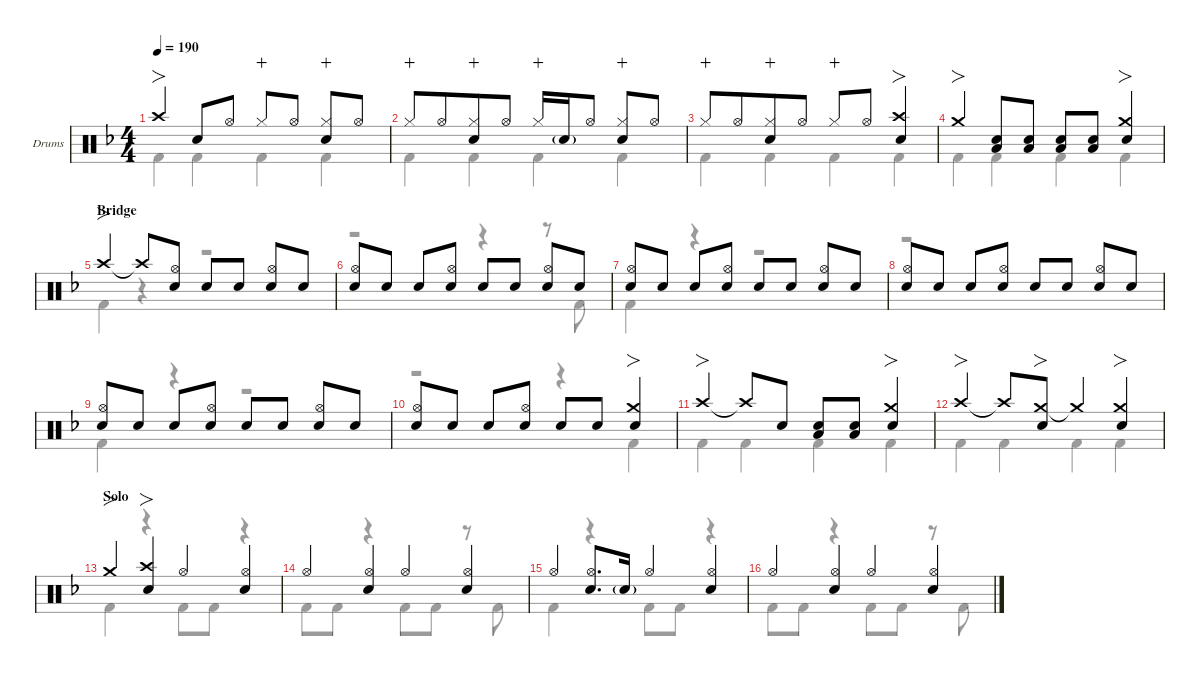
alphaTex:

\defaultSystemsLayout 4
\hideDynamics
\bracketExtendMode nobrackets
\firstSystemTrackNameOrientation horizontal
\track ("Drums" "Drums") {defaultSystemsLayout 4 instrument percussion}
\staff {score}
\articulation defaults
\voice
\ts (4 4)
\tempo 190
\clef neutral
\scale
0.266618
\ks dminor "Crash high (hit)"{acc forcenatural}.4{fo dy f} "Snare (hit) 2"{acc forcenatural}.8 "Hi-Hat (open)"{acc forcenatural}.8 "Hi-Hat (closed)"{acc forcenatural}.8{dy mp wahc} "Hi-Hat (open)"{acc forcenatural}.8{dy f}
("Hi-Hat (closed)"{acc forcenatural} "Snare (hit) 2"{acc forcenatural}).8{wahc} "Hi-Hat (open)"{acc forcenatural}.8 |
\scale
0.24446 "Hi-Hat (closed)"{acc forcenatural}.8{dy mp wahc beam merge} "Hi-Hat (open)"{acc forcenatural}.8{dy f beam merge} ("Hi-Hat (closed)"{acc forcenatural} "Snare (hit) 2"{acc forcenatural}).8{wahc beam merge} "Hi-Hat (open)"{acc forcenatural}.8 "Hi-Hat (closed)"{acc forcenatural}.16{dy mp wahc} "Snare (hit) 2"{g acc forcenatural}.16{dy mf} "Hi-Hat (open)"{acc forcenatural}.8{dy f beam split} ("Hi-Hat (closed)"{acc forcenatural} "Snare (hit) 2"{acc forcenatural}).8{wahc} "Hi-Hat (open)"{acc forcenatural}.8 |
\scale
0.24446 "Hi-Hat (closed)"{acc forcenatural}.8{dy mp wahc beam merge} "Hi-Hat (open)"{acc forcenatural}.8{dy f beam merge} ("Hi-Hat (closed)"{acc forcenatural} "Snare (hit) 2"{acc forcenatural}).8{wahc beam merge} "Hi-Hat (open)"{acc forcenatural}.8 "Hi-Hat (closed)"{acc forcenatural}.8{dy mp wahc beam merge} "Hi-Hat (open)"{acc forcenatural}.8{dy f beam merge} ("Crash high (hit)"{acc forcenatural} "Snare (hit) 2"{acc forcenatural}).4{fo beam merge} |
\scale
0.244461 "Crash medium (hit)"{acc forcenatural}.4{fo beam merge} ("Snare (hit) 2"{acc forcenatural} "Low Tom (hit)"{acc forcenatural}).8{beam merge} ("Snare (hit) 2"{acc forcenatural} "Low Tom (hit)"{acc forcenatural}).8 ("Snare (hit) 2"{acc forcenatural} "Low Tom (hit)"{acc forcenatural}).8 ("Snare (hit) 2"{acc forcenatural} "Low Tom (hit)"{acc forcenatural}).8 ("Snare (hit) 2"{acc forcenatural} "Crash medium (hit)"{acc forcenatural}).4{fo} |
\section ("" "Bridge")
\scale
0.266618 "Crash high (hit)"{acc forcenatural}.4{fo} "Crash high (hit)"{t acc forcenatural}.8 ("Hi-Hat (open)"{acc forcenatural} "Snare (hit) 2"{acc forcenatural}).8 "Snare (hit) 2"{acc forcenatural}.8{dy mf} "Snare (hit) 2"{acc forcenatural}.8 ("Snare (hit) 2"{acc forcenatural} "Hi-Hat (open)"{acc forcenatural}).8{dy f} "Snare (hit) 2"{acc forcenatural}.8{dy mf} |
\scale
0.24446 ("Snare (hit) 2"{acc forcenatural} "Hi-Hat (open)"{acc forcenatural}).8{dy f} "Snare (hit) 2"{acc forcenatural}.8{dy mf} "Snare (hit) 2"{acc forcenatural}.8 ("Hi-Hat (open)"{acc forcenatural} "Snare (hit) 2"{acc forcenatural}).8{dy f} "Snare (hit) 2"{acc forcenatural}.8{dy mf} "Snare (hit) 2"{acc forcenatural}.8 ("Hi-Hat (open)"{acc forcenatural} "Snare (hit) 2"{acc forcenatural}).8{dy f} "Snare (hit) 2"{acc forcenatural}.8{dy mf} |
\scale
0.24446 ("Snare (hit) 2"{acc forcenatural} "Hi-Hat (open)"{acc forcenatural}).8{dy f} "Snare (hit) 2"{acc forcenatural}.8{dy mf} "Snare (hit) 2"{acc forcenatural}.8 ("Hi-Hat (open)"{acc forcenatural} "Snare (hit) 2"{acc forcenatural}).8{dy f} "Snare (hit) 2"{acc forcenatural}.8{dy mf} "Snare (hit) 2"{acc forcenatural}.8 ("Hi-Hat (open)"{acc forcenatural} "Snare (hit) 2"{acc forcenatural}).8{dy f} "Snare (hit) 2"{acc forcenatural}.8{dy mf} |
\scale
0.244461 ("Snare (hit) 2"{acc forcenatural} "Hi-Hat (open)"{acc forcenatural}).8{dy f} "Snare (hit) 2"{acc forcenatural}.8{dy mf} "Snare (hit) 2"{acc forcenatural}.8 ("Hi-Hat (open)"{acc forcenatural} "Snare (hit) 2"{acc forcenatural}).8{dy f} "Snare (hit) 2"{acc forcenatural}.8{dy mf} "Snare (hit) 2"{acc forcenatural}.8 ("Hi-Hat (open)"{acc forcenatural} "Snare (hit) 2"{acc forcenatural}).8{dy f} "Snare (hit) 2"{acc forcenatural}.8{dy mf} |
\scale
0.266618 ("Snare (hit) 2"{acc forcenatural} "Hi-Hat (open)"{acc forcenatural}).8{dy f} "Snare (hit) 2"{acc forcenatural}.8{dy mf} "Snare (hit) 2"{acc forcenatural}.8 ("Hi-Hat (open)"{acc forcenatural} "Snare (hit) 2"{acc forcenatural}).8{dy f} "Snare (hit) 2"{acc forcenatural}.8{dy mf} "Snare (hit) 2"{acc forcenatural}.8 ("Hi-Hat (open)"{acc forcenatural} "Snare (hit) 2"{acc forcenatural}).8{dy f} "Snare (hit) 2"{acc forcenatural}.8{dy mf} |
\scale
0.244461 ("Snare (hit) 2"{acc forcenatural} "Hi-Hat (open)"{acc forcenatural}).8{dy f} "Snare (hit) 2"{acc forcenatural}.8{dy mf} "Snare (hit) 2"{acc forcenatural}.8 ("Hi-Hat (open)"{acc forcenatural} "Snare (hit) 2"{acc forcenatural}).8{dy f} "Snare (hit) 2"{acc forcenatural}.8{dy mf} "Snare (hit) 2"{acc forcenatural}.8 ("Crash medium (hit)"{acc forcenatural} "Snare (hit) 2"{acc forcenatural}).4{fo dy f} |
\scale
0.244461 "Crash high (hit)"{acc forcenatural}.4{fo} "Crash high (hit)"{t acc forcenatural}.8 "Snare (hit) 2"{acc forcenatural}.8 ("Snare (hit) 2"{acc forcenatural} "Low Tom (hit)"{acc forcenatural}).8 ("Snare (hit) 2"{acc forcenatural} "Low Tom (hit)"{acc forcenatural}).8 ("Snare (hit) 2"{acc forcenatural} "Crash medium (hit)"{acc forcenatural}).4{fo} |
\scale
0.244461 "Crash high (hit)"{acc forcenatural}.4{fo} "Crash high (hit)"{t acc forcenatural}.8 ("Crash medium (hit)"{acc forcenatural} "Snare (hit) 2"{acc forcenatural}).8{fo} "Crash medium (hit)"{t acc forcenatural}.4 ("Crash medium (hit)"{acc forcenatural} "Snare (hit) 2"{acc forcenatural}).4{fo} |
\section ("" "Solo")
\scale
0.267605 "Crash medium (hit)"{acc forcenatural}.4{fo} ("Crash high (hit)"{acc forcenatural} "Snare (hit) 2"{acc forcenatural}).4{fo} "Hi-Hat (open)"{acc forcenatural}.4 ("Hi-Hat (open)"{acc forcenatural} "Snare (hit) 2"{acc forcenatural}).4 |
\scale
0.243474 "Hi-Hat (open)"{acc forcenatural}.4 ("Hi-Hat (open)"{acc forcenatural} "Snare (hit) 2"{acc forcenatural}).4 "Hi-Hat (open)"{acc forcenatural}.4 ("Hi-Hat (open)"{acc forcenatural} "Snare (hit) 2"{acc forcenatural}).4 |
\scale
0.244789 "Hi-Hat (open)"{acc forcenatural}.4 ("Hi-Hat (open)"{acc forcenatural} "Snare (hit) 2"{acc forcenatural}).8{d} "Snare (hit) 2"{g acc forcenatural}.16{dy mf} "Hi-Hat (open)"{acc forcenatural}.4{dy f} ("Hi-Hat (open)"{acc forcenatural} "Snare (hit) 2"{acc forcenatural}).4 |
\scale
0.244132 "Hi-Hat (open)"{acc forcenatural}.4 ("Hi-Hat (open)"{acc forcenatural} "Snare (hit) 2"{acc forcenatural}).4 "Hi-Hat (open)"{acc forcenatural}.4 ("Hi-Hat (open)"{acc forcenatural} "Snare (hit) 2"{acc forcenatural}).4
\voice
\clef neutral
\ottava regular
\simile none
\scale
0.266618
\ks dminor "Kick (hit) 2"{acc forcenatural}.4{dy f} "Kick (hit) 2"{acc forcenatural}.4 "Kick (hit) 2"{acc forcenatural}.4 "Kick (hit) 2"{acc forcenatural}.4
|
\scale
0.24446 "Kick (hit) 2"{acc forcenatural}.4 "Kick (hit) 2"{acc forcenatural}.4 "Kick (hit) 2"{acc forcenatural}.4 "Kick (hit) 2"{acc forcenatural}.4 |
\scale
0.24446 "Kick (hit) 2"{acc forcenatural}.4 "Kick (hit) 2"{acc forcenatural}.4 "Kick (hit) 2"{acc forcenatural}.4 "Kick (hit) 2"{acc forcenatural}.4 |
\scale
0.244461 "Kick (hit) 2"{acc forcenatural}.4 "Kick (hit) 2"{acc forcenatural}.4 "Kick (hit) 2"{acc forcenatural}.4 "Kick (hit) 2"{acc forcenatural}.4 |
\scale
0.266618 "Kick (hit) 2"{acc forcenatural}.4 r.4 r.2 |
\scale
0.24446 r.2 r.4 r.8 "Kick (hit) 2"{acc forcenatural}.8 |
\scale
0.24446 "Kick (hit) 2"{acc forcenatural}.4 r.4 r.2 |
\scale
0.244461 r.1 |
\scale
0.266618 "Kick (hit) 2"{acc forcenatural}.4 r.4 r.2 |
\scale
0.244461 r.2 r.4 "Kick (hit) 2"{acc forcenatural}.4 |
\scale
0.244461 "Kick (hit) 2"{acc forcenatural}.4 "Kick (hit) 2"{acc forcenatural}.4 "Kick (hit) 2"{acc forcenatural}.4 "Kick (hit) 2"{acc forcenatural}.4 |
\scale
0.244461 "Kick (hit) 2"{acc forcenatural}.4 "Kick (hit) 2"{acc forcenatural}.4 "Kick (hit) 2"{acc forcenatural}.4 "Kick (hit) 2"{acc forcenatural}.4 |
\scale
0.267605 "Kick (hit) 2"{acc forcenatural}.4 r.4 "Kick (hit) 2"{acc forcenatural}.8 "Kick (hit) 2"{acc forcenatural}.8 r.4 |
\scale
0.243474 "Kick (hit) 2"{acc forcenatural}.8 "Kick (hit) 2"{acc forcenatural}.8 r.4 "Kick (hit) 2"{acc forcenatural}.8 "Kick (hit) 2"{acc forcenatural}.8 r.8 "Kick (hit) 2"{acc forcenatural}.8 |
\scale
0.244789 "Kick (hit) 2"{acc forcenatural}.4 r.4 "Kick (hit) 2"{acc forcenatural}.8 "Kick (hit) 2"{acc forcenatural}.8 r.4 |
\scale
0.244132 "Kick (hit) 2"{acc forcenatural}.8 "Kick (hit) 2"{acc forcenatural}.8 r.4 "Kick (hit) 2"{acc forcenatural}.8 "Kick (hit) 2"{acc forcenatural}.8 r.8 "Kick (hit) 2"{acc forcenatural}.8
